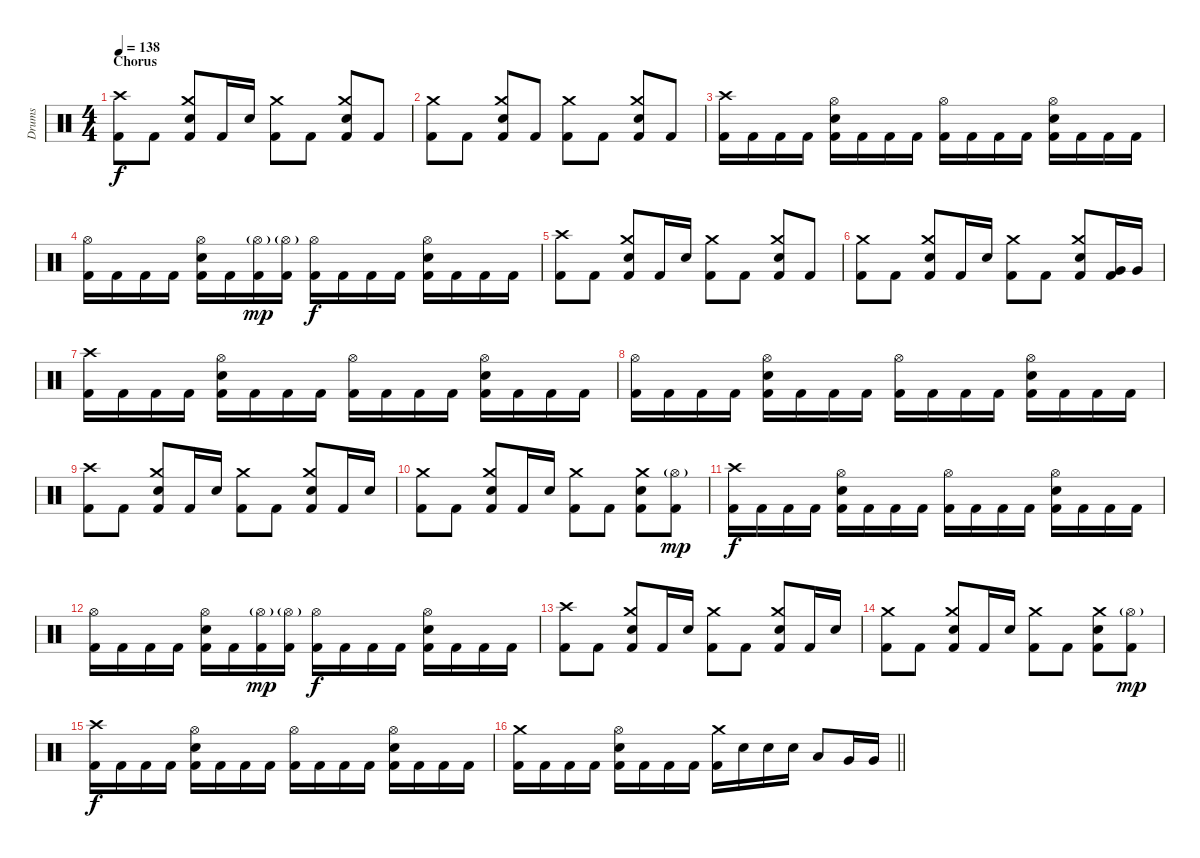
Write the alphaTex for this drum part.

\track ("Drums" "Drums") {instrument percussion}
\staff {score}
\articulation defaults
\ts (4 4)
\section ("" "Chorus")
\tempo 138
\clef neutral
\ks c
("Crash high (hit)" "Kick (hit) 2").8{dy f} "Kick (hit) 2".8 ("Crash medium (hit)" "Electric Snare (hit)" "Kick (hit) 2").8 "Kick (hit) 2".16 "Electric Snare (hit)".16 ("Crash medium (hit)" "Kick (hit) 2").8 "Kick (hit) 2".8 ("Crash medium (hit)" "Electric Snare (hit)" "Kick (hit) 2").8 "Kick (hit) 2".8 |
("Crash medium (hit)" "Kick (hit) 2").8 "Kick (hit) 2".8 ("Crash medium (hit)" "Electric Snare (hit)" "Kick (hit) 2").8 "Kick (hit) 2".8 ("Crash medium (hit)" "Kick (hit) 2").8 "Kick (hit) 2".8 ("Crash medium (hit)" "Electric Snare (hit)" "Kick (hit) 2").8 "Kick (hit) 2".8 |
("Crash high (hit)" "Kick (hit) 2").16 "Kick (hit) 2".16 "Kick (hit) 2".16 "Kick (hit) 2".16 ("Hi-Hat (open)" "Electric Snare (hit)" "Kick (hit) 2").16 "Kick (hit) 2".16 "Kick (hit) 2".16 "Kick (hit) 2".16 ("Hi-Hat (open)" "Kick (hit) 2").16 "Kick (hit) 2".16 "Kick (hit) 2".16 "Kick (hit) 2".16 ("Hi-Hat (open)" "Electric Snare (hit)" "Kick (hit) 2").16 "Kick (hit) 2".16 "Kick (hit) 2".16 "Kick (hit) 2".16 |
("Hi-Hat (open)" "Kick (hit) 2").16 "Kick (hit) 2".16 "Kick (hit) 2".16 "Kick (hit) 2".16 ("Hi-Hat (open)" "Electric Snare (hit)" "Kick (hit) 2").16 "Kick (hit) 2".16 ("Hi-Hat (open)"{g} "Kick (hit) 2").16{dy mp} ("Hi-Hat (open)"{g} "Kick (hit) 2").16 ("Hi-Hat (open)" "Kick (hit) 2").16{dy f} "Kick (hit) 2".16 "Kick (hit) 2".16 "Kick (hit) 2".16 ("Hi-Hat (open)" "Electric Snare (hit)" "Kick (hit) 2").16 "Kick (hit) 2".16 "Kick (hit) 2".16 "Kick (hit) 2".16 |
("Crash high (hit)" "Kick (hit) 2").8 "Kick (hit) 2".8 ("Crash medium (hit)" "Electric Snare (hit)" "Kick (hit) 2").8 "Kick (hit) 2".16 "Electric Snare (hit)".16 ("Crash medium (hit)" "Kick (hit) 2").8 "Kick (hit) 2".8 ("Crash medium (hit)" "Electric Snare (hit)" "Kick (hit) 2").8 "Kick (hit) 2".8 |
("Crash medium (hit)" "Kick (hit) 2").8 "Kick (hit) 2".8 ("Crash medium (hit)" "Electric Snare (hit)" "Kick (hit) 2").8 "Kick (hit) 2".16 "Electric Snare (hit)".16 ("Crash medium (hit)" "Kick (hit) 2").8 "Kick (hit) 2".8 ("Crash medium (hit)" "Electric Snare (hit)" "Kick (hit) 2").8 ("Very Low Tom (hit)" "Kick (hit) 2").16 "Very Low Tom (hit)".16 |
("Crash high (hit)" "Kick (hit) 2").16 "Kick (hit) 2".16 "Kick (hit) 2".16 "Kick (hit) 2".16 ("Hi-Hat (open)" "Electric Snare (hit)" "Kick (hit) 2").16 "Kick (hit) 2".16 "Kick (hit) 2".16 "Kick (hit) 2".16 ("Hi-Hat (open)" "Kick (hit) 2").16 "Kick (hit) 2".16 "Kick (hit) 2".16 "Kick (hit) 2".16 ("Hi-Hat (open)" "Electric Snare (hit)" "Kick (hit) 2").16 "Kick (hit) 2".16 "Kick (hit) 2".16 "Kick (hit) 2".16 |
("Hi-Hat (open)" "Kick (hit) 2").16 "Kick (hit) 2".16 "Kick (hit) 2".16 "Kick (hit) 2".16 ("Hi-Hat (open)" "Electric Snare (hit)" "Kick (hit) 2").16 "Kick (hit) 2".16 "Kick (hit) 2".16 "Kick (hit) 2".16 ("Hi-Hat (open)" "Kick (hit) 2").16 "Kick (hit) 2".16 "Kick (hit) 2".16 "Kick (hit) 2".16 ("Hi-Hat (open)" "Electric Snare (hit)" "Kick (hit) 2").16 "Kick (hit) 2".16 "Kick (hit) 2".16 "Kick (hit) 2".16 |
("Crash high (hit)" "Kick (hit) 2").8 "Kick (hit) 2".8 ("Crash medium (hit)" "Electric Snare (hit)" "Kick (hit) 2").8 "Kick (hit) 2".16 "Electric Snare (hit)".16 ("Crash medium (hit)" "Kick (hit) 2").8 "Kick (hit) 2".8 ("Crash medium (hit)" "Electric Snare (hit)" "Kick (hit) 2").8 "Kick (hit) 2".16 "Electric Snare (hit)".16 |
("Crash medium (hit)" "Kick (hit) 2").8 "Kick (hit) 2".8 ("Crash medium (hit)" "Electric Snare (hit)" "Kick (hit) 2").8 "Kick (hit) 2".16 "Electric Snare (hit)".16 ("Crash medium (hit)" "Kick (hit) 2").8 "Kick (hit) 2".8 ("Crash medium (hit)" "Electric Snare (hit)" "Kick (hit) 2").8 ("Hi-Hat (open)"{g} "Kick (hit) 2").8{dy mp} |
("Crash high (hit)" "Kick (hit) 2").16{dy f} "Kick (hit) 2".16 "Kick (hit) 2".16 "Kick (hit) 2".16 ("Hi-Hat (open)" "Electric Snare (hit)" "Kick (hit) 2").16 "Kick (hit) 2".16 "Kick (hit) 2".16 "Kick (hit) 2".16 ("Hi-Hat (open)" "Kick (hit) 2").16 "Kick (hit) 2".16 "Kick (hit) 2".16 "Kick (hit) 2".16 ("Hi-Hat (open)" "Electric Snare (hit)" "Kick (hit) 2").16 "Kick (hit) 2".16 "Kick (hit) 2".16 "Kick (hit) 2".16 |
("Hi-Hat (open)" "Kick (hit) 2").16 "Kick (hit) 2".16 "Kick (hit) 2".16 "Kick (hit) 2".16 ("Hi-Hat (open)" "Electric Snare (hit)" "Kick (hit) 2").16 "Kick (hit) 2".16 ("Hi-Hat (open)"{g} "Kick (hit) 2").16{dy mp} ("Hi-Hat (open)"{g} "Kick (hit) 2").16 ("Hi-Hat (open)" "Kick (hit) 2").16{dy f} "Kick (hit) 2".16 "Kick (hit) 2".16 "Kick (hit) 2".16 ("Hi-Hat (open)" "Electric Snare (hit)" "Kick (hit) 2").16 "Kick (hit) 2".16 "Kick (hit) 2".16 "Kick (hit) 2".16 |
("Crash high (hit)" "Kick (hit) 2").8 "Kick (hit) 2".8 ("Crash medium (hit)" "Electric Snare (hit)" "Kick (hit) 2").8 "Kick (hit) 2".16 "Electric Snare (hit)".16 ("Crash medium (hit)" "Kick (hit) 2").8 "Kick (hit) 2".8 ("Crash medium (hit)" "Electric Snare (hit)" "Kick (hit) 2").8 "Kick (hit) 2".16 "Electric Snare (hit)".16 |
("Crash medium (hit)" "Kick (hit) 2").8 "Kick (hit) 2".8 ("Crash medium (hit)" "Electric Snare (hit)" "Kick (hit) 2").8 "Kick (hit) 2".16 "Electric Snare (hit)".16 ("Crash medium (hit)" "Kick (hit) 2").8 "Kick (hit) 2".8 ("Crash medium (hit)" "Electric Snare (hit)" "Kick (hit) 2").8 ("Hi-Hat (open)"{g} "Kick (hit) 2").8{dy mp} |
("Crash high (hit)" "Kick (hit) 2").16{dy f} "Kick (hit) 2".16 "Kick (hit) 2".16 "Kick (hit) 2".16 ("Hi-Hat (open)" "Electric Snare (hit)" "Kick (hit) 2").16 "Kick (hit) 2".16 "Kick (hit) 2".16 "Kick (hit) 2".16 ("Hi-Hat (open)" "Kick (hit) 2").16 "Kick (hit) 2".16 "Kick (hit) 2".16 "Kick (hit) 2".16 ("Hi-Hat (open)" "Electric Snare (hit)" "Kick (hit) 2").16 "Kick (hit) 2".16 "Kick (hit) 2".16 "Kick (hit) 2".16 |
\barLineRight lightlight
("Crash medium (hit)" "Kick (hit) 2").16 "Kick (hit) 2".16 "Kick (hit) 2".16 "Kick (hit) 2".16 ("Hi-Hat (open)" "Electric Snare (hit)" "Kick (hit) 2").16 "Kick (hit) 2".16 "Kick (hit) 2".16 "Kick (hit) 2".16 ("Crash medium (hit)" "Kick (hit) 2").16 "Electric Snare (hit)".16 "Electric Snare (hit)".16 "Electric Snare (hit)".16 "Low Tom (hit)".8 "Very Low Tom (hit)".16 "Very Low Tom (hit)".16
